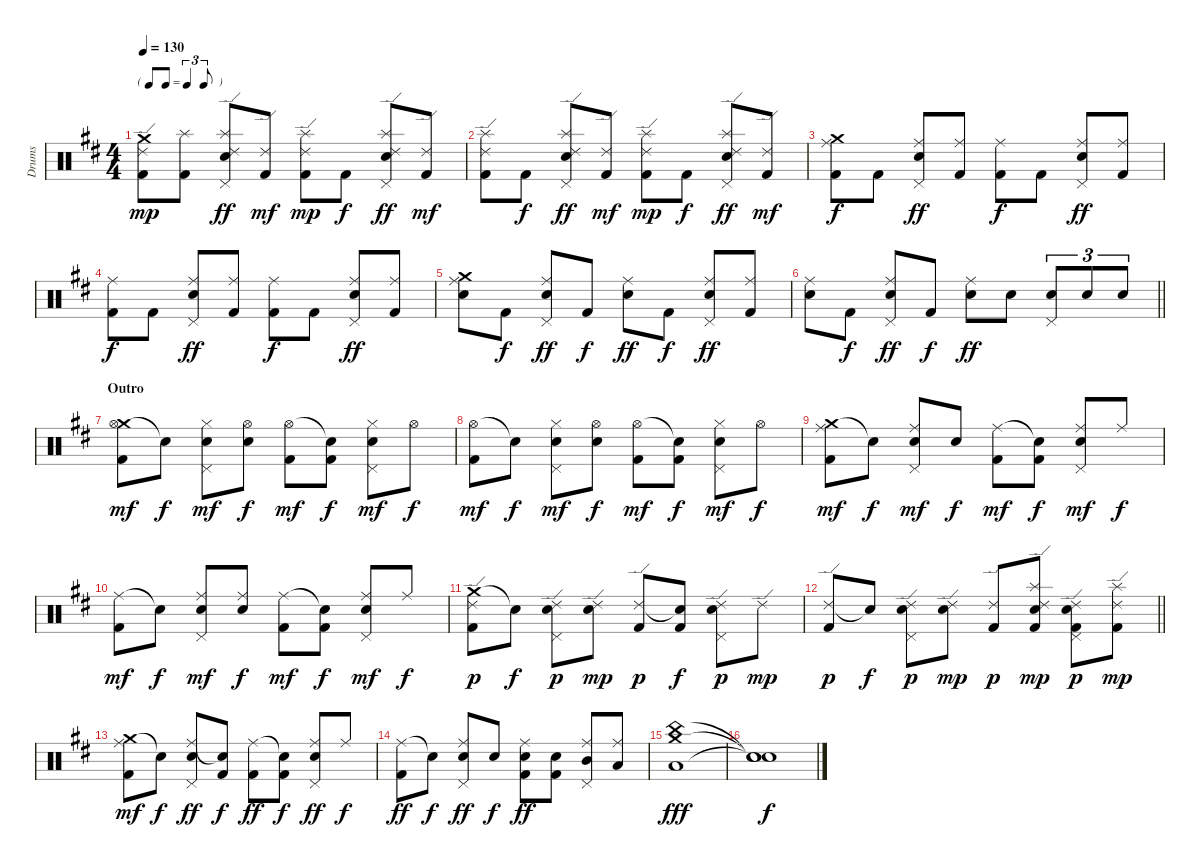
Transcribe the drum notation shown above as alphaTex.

\track ("Drums" "Drums") {instrument percussion}
\staff {score}
\articulation defaults
\ts (4 4)
\tf triplet8th
\tempo 130
\clef neutral
\ks d
("Crash medium (hit)" "Ride (edge) 2" "Kick (hit) 2").8{dy mp} ("Splash (hit)" "Kick (hit) 2").8 ("Splash (hit)" "Ride (edge) 2" "Pedal Hi-Hat (hit)" "Snare (hit) 2").8{dy ff} ("Ride (edge) 2" "Kick (hit) 2").8{dy mf} ("Splash (hit)" "Ride (edge) 2" "Kick (hit) 2").8{dy mp} "Kick (hit) 2".8{dy f} ("Splash (hit)" "Ride (edge) 2" "Pedal Hi-Hat (hit)" "Snare (hit) 2").8{dy ff} ("Ride (edge) 2" "Kick (hit) 2").8{dy mf} |
("Splash (hit)" "Ride (edge) 2" "Kick (hit) 2").8 "Kick (hit) 2".8{dy f} ("Splash (hit)" "Ride (edge) 2" "Pedal Hi-Hat (hit)" "Snare (hit) 2").8{dy ff} ("Ride (edge) 2" "Kick (hit) 2").8{dy mf} ("Splash (hit)" "Ride (edge) 2" "Kick (hit) 2").8{dy mp} "Kick (hit) 2".8{dy f} ("Splash (hit)" "Ride (edge) 2" "Pedal Hi-Hat (hit)" "Snare (hit) 2").8{dy ff} ("Ride (edge) 2" "Kick (hit) 2").8{dy mf} |
("Crash medium (hit)" "Ride (middle)" "Kick (hit) 2").8{dy f} "Kick (hit) 2".8 ("Ride (middle)" "Pedal Hi-Hat (hit)" "Snare (hit) 2").8{dy ff} ("Ride (middle)" "Kick (hit) 2").8 ("Ride (middle)" "Kick (hit) 2").8{dy f} "Kick (hit) 2".8 ("Ride (middle)" "Pedal Hi-Hat (hit)" "Snare (hit) 2").8{dy ff} ("Ride (middle)" "Kick (hit) 2").8 |
("Ride (middle)" "Kick (hit) 2").8{dy f} "Kick (hit) 2".8 ("Ride (middle)" "Pedal Hi-Hat (hit)" "Snare (hit) 2").8{dy ff} ("Ride (middle)" "Kick (hit) 2").8 ("Ride (middle)" "Kick (hit) 2").8{dy f} "Kick (hit) 2".8 ("Ride (middle)" "Pedal Hi-Hat (hit)" "Snare (hit) 2").8{dy ff} ("Ride (middle)" "Kick (hit) 2").8 |
("Crash medium (hit)" "Ride (middle)" "Snare (hit) 2").8 "Kick (hit) 2".8{dy f} ("Ride (middle)" "Pedal Hi-Hat (hit)" "Snare (hit) 2").8{dy ff} "Kick (hit) 2".8{dy f} ("Ride (middle)" "Snare (hit) 2").8{dy ff} "Kick (hit) 2".8{dy f} ("Ride (middle)" "Pedal Hi-Hat (hit)" "Snare (hit) 2").8{dy ff} ("Ride (middle)" "Kick (hit) 2").8 |
\barLineRight lightlight
("Ride (middle)" "Snare (hit) 2").8 "Kick (hit) 2".8{dy f} ("Ride (middle)" "Pedal Hi-Hat (hit)" "Snare (hit) 2").8{dy ff} "Kick (hit) 2".8{dy f} ("Ride (middle)" "Snare (hit) 2").8{dy ff} "Snare (hit) 2".8 ("Pedal Hi-Hat (hit)" "Snare (hit) 2").8{tu (3 2)} "Snare (hit) 2".8{tu (3 2)} "Snare (hit) 2".8{tu (3 2)} |
\section ("" "Outro")
("Crash medium (hit)" "Hi-Hat (open)" "Kick (hit) 2").8{dy mf} "Snare (hit)"{t}.8{dy f} ("Hi-Hat (closed)" "Pedal Hi-Hat (hit)" "Snare (hit) 2").8{dy mf} ("Hi-Hat (open)" "Snare (hit) 2").8{dy f} ("Hi-Hat (open)" "Kick (hit) 2").8{dy mf} ("Snare (hit)"{t} "Kick (hit) 2").8{dy f} ("Hi-Hat (closed)" "Pedal Hi-Hat (hit)" "Snare (hit) 2").8{dy mf} "Hi-Hat (open)".8{dy f} |
("Hi-Hat (open)" "Kick (hit) 2").8{dy mf} "Snare (hit)"{t}.8{dy f} ("Hi-Hat (closed)" "Pedal Hi-Hat (hit)" "Snare (hit) 2").8{dy mf} ("Hi-Hat (open)" "Snare (hit) 2").8{dy f} ("Hi-Hat (open)" "Kick (hit) 2").8{dy mf} ("Snare (hit)"{t} "Kick (hit) 2").8{dy f} ("Hi-Hat (closed)" "Pedal Hi-Hat (hit)" "Snare (hit) 2").8{dy mf} "Hi-Hat (open)".8{dy f} |
("Crash medium (hit)" "Ride (middle)" "Kick (hit) 2").8{dy mf} "Snare (hit)"{t}.8{dy f} ("Ride (middle)" "Pedal Hi-Hat (hit)" "Snare (hit) 2").8{dy mf} "Snare (hit) 2".8{dy f} ("Ride (middle)" "Kick (hit) 2").8{dy mf} ("Snare (hit)"{t} "Kick (hit) 2").8{dy f} ("Ride (middle)" "Pedal Hi-Hat (hit)" "Snare (hit) 2").8{dy mf} "Ride (middle)".8{dy f} |
("Ride (middle)" "Kick (hit) 2").8{dy mf} "Snare (hit)"{t}.8{dy f} ("Ride (middle)" "Pedal Hi-Hat (hit)" "Snare (hit) 2").8{dy mf} ("Ride (middle)" "Snare (hit) 2").8{dy f} ("Ride (middle)" "Kick (hit) 2").8{dy mf} ("Snare (hit)"{t} "Kick (hit) 2").8{dy f} ("Ride (middle)" "Pedal Hi-Hat (hit)" "Snare (hit) 2").8{dy mf} "Ride (middle)".8{dy f} |
("Crash medium (hit)" "Ride (edge) 2" "Kick (hit) 2").8{dy p} "Snare (hit)"{t}.8{dy f} ("Ride (edge) 2" "Pedal Hi-Hat (hit)" "Snare (hit) 2").8{dy p} ("Ride (edge) 2" "Snare (hit) 2").8{dy mp} ("Ride (edge) 2" "Kick (hit) 2").8{dy p} ("Snare (hit)"{t} "Kick (hit) 2").8{dy f} ("Ride (edge) 2" "Pedal Hi-Hat (hit)" "Snare (hit) 2").8{dy p} "Ride (edge) 2".8{dy mp} |
\barLineRight lightlight
("Ride (edge) 2" "Kick (hit) 2").8{dy p} "Snare (hit)"{t}.8{dy f} ("Ride (edge) 2" "Pedal Hi-Hat (hit)" "Snare (hit) 2").8{dy p} ("Ride (edge) 2" "Snare (hit) 2").8{dy mp} ("Ride (edge) 2" "Kick (hit) 2").8{dy p} ("Splash (hit)" "Ride (edge) 2" "Snare (hit) 2" "Kick (hit) 2").8{dy mp} ("Ride (edge) 2" "Pedal Hi-Hat (hit)" "Snare (hit) 2" "Kick (hit) 2").8{dy p} ("Splash (hit)" "Ride (edge) 2" "Kick (hit) 2").8{dy mp} |
("Crash medium (hit)" "Ride (middle)" "Kick (hit) 2").8{dy mf} "Snare (hit)"{t}.8{dy f} ("Ride (middle)" "Pedal Hi-Hat (hit)" "Snare (hit) 2").8{dy ff} ("Snare (hit)"{t} "Kick (hit) 2").8{dy f} ("Ride (middle)" "Kick (hit) 2").8{dy ff} ("Snare (hit)"{t} "Kick (hit) 2").8{dy f} ("Ride (middle)" "Pedal Hi-Hat (hit)" "Snare (hit) 2").8{dy ff} "Ride (middle)".8{dy f} |
("Ride (middle)" "Kick (hit) 2").8{dy ff} "Snare (hit)"{t}.8{dy f} ("Ride (middle)" "Pedal Hi-Hat (hit)" "Snare (hit) 2").8{dy ff} "Snare (hit) 2".8{dy f} ("Ride (middle)" "Snare (hit) 2" "Kick (hit) 2").8{dy ff} ("Snare (hit) 2" "Kick (hit) 2").8 ("Ride (middle)" "Pedal Hi-Hat (hit)" "Mid Tom (hit)").8 ("Ride (middle)" "Low Tom (hit)").8 |
("China (hit)" "Crash medium (hit)" "Low Floor Tom (hit)").1{dy fff} |
("Snare (hit)"{t} "Snare (hit)"{t} "Snare (hit)"{t}).1{dy f}
